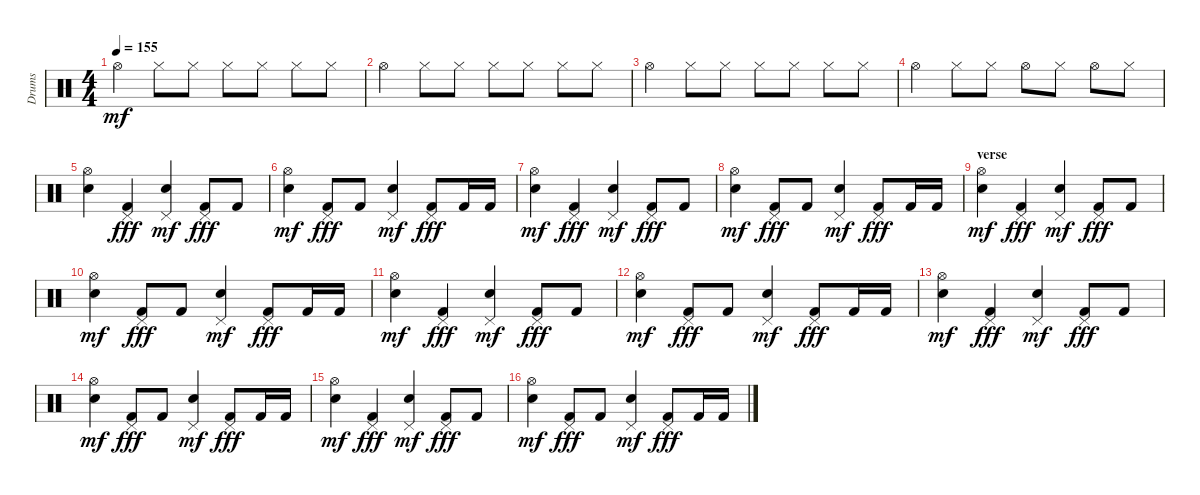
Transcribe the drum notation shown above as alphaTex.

\track ("Drums" "Drums") {instrument percussion}
\staff {score}
\articulation defaults
\ts (4 4)
\tempo 155
\clef neutral
\ks c "Hi-Hat (open)".4{dy mf} "Hi-Hat (closed)".8 "Hi-Hat (closed)".8 "Hi-Hat (closed)".8 "Hi-Hat (closed)".8 "Hi-Hat (closed)".8 "Hi-Hat (closed)".8
|
"Hi-Hat (open)".4 "Hi-Hat (closed)".8 "Hi-Hat (closed)".8 "Hi-Hat (closed)".8 "Hi-Hat (closed)".8 "Hi-Hat (closed)".8 "Hi-Hat (closed)".8 |
"Hi-Hat (open)".4 "Hi-Hat (closed)".8 "Hi-Hat (closed)".8 "Hi-Hat (closed)".8 "Hi-Hat (closed)".8 "Hi-Hat (closed)".8 "Hi-Hat (closed)".8 |
"Hi-Hat (open)".4 "Hi-Hat (closed)".8 "Hi-Hat (closed)".8 "Hi-Hat (open)".8 "Hi-Hat (closed)".8 "Hi-Hat (open)".8 "Hi-Hat (closed)".8 |
("Hi-Hat (open)" "Electric Snare (hit)").4 ("Pedal Hi-Hat (hit)" "Kick (hit) 2").4{dy fff} ("Pedal Hi-Hat (hit)" "Electric Snare (hit)").4{dy mf} ("Pedal Hi-Hat (hit)" "Kick (hit) 2").8{dy fff} "Kick (hit) 2".8 |
("Hi-Hat (open)" "Electric Snare (hit)").4{dy mf} ("Pedal Hi-Hat (hit)" "Kick (hit) 2").8{dy fff} "Kick (hit) 2".8 ("Pedal Hi-Hat (hit)" "Electric Snare (hit)").4{dy mf} ("Pedal Hi-Hat (hit)" "Kick (hit) 2").8{dy fff} "Kick (hit) 2".16 "Kick (hit) 2".16 |
("Hi-Hat (open)" "Electric Snare (hit)").4{dy mf} ("Pedal Hi-Hat (hit)" "Kick (hit) 2").4{dy fff} ("Pedal Hi-Hat (hit)" "Electric Snare (hit)").4{dy mf} ("Pedal Hi-Hat (hit)" "Kick (hit) 2").8{dy fff} "Kick (hit) 2".8 |
("Hi-Hat (open)" "Electric Snare (hit)").4{dy mf} ("Pedal Hi-Hat (hit)" "Kick (hit) 2").8{dy fff} "Kick (hit) 2".8 ("Pedal Hi-Hat (hit)" "Electric Snare (hit)").4{dy mf} ("Pedal Hi-Hat (hit)" "Kick (hit) 2").8{dy fff} "Kick (hit) 2".16 "Kick (hit) 2".16 |
\section ("" "verse")
("Hi-Hat (open)" "Electric Snare (hit)").4{dy mf} ("Pedal Hi-Hat (hit)" "Kick (hit) 2").4{dy fff} ("Pedal Hi-Hat (hit)" "Electric Snare (hit)").4{dy mf} ("Pedal Hi-Hat (hit)" "Kick (hit) 2").8{dy fff} "Kick (hit) 2".8 |
("Hi-Hat (open)" "Electric Snare (hit)").4{dy mf} ("Pedal Hi-Hat (hit)" "Kick (hit) 2").8{dy fff} "Kick (hit) 2".8 ("Pedal Hi-Hat (hit)" "Electric Snare (hit)").4{dy mf} ("Pedal Hi-Hat (hit)" "Kick (hit) 2").8{dy fff} "Kick (hit) 2".16 "Kick (hit) 2".16 |
("Hi-Hat (open)" "Electric Snare (hit)").4{dy mf} ("Pedal Hi-Hat (hit)" "Kick (hit) 2").4{dy fff} ("Pedal Hi-Hat (hit)" "Electric Snare (hit)").4{dy mf} ("Pedal Hi-Hat (hit)" "Kick (hit) 2").8{dy fff} "Kick (hit) 2".8 |
("Hi-Hat (open)" "Electric Snare (hit)").4{dy mf} ("Pedal Hi-Hat (hit)" "Kick (hit) 2").8{dy fff} "Kick (hit) 2".8 ("Pedal Hi-Hat (hit)" "Electric Snare (hit)").4{dy mf} ("Pedal Hi-Hat (hit)" "Kick (hit) 2").8{dy fff} "Kick (hit) 2".16 "Kick (hit) 2".16 |
("Hi-Hat (open)" "Electric Snare (hit)").4{dy mf} ("Pedal Hi-Hat (hit)" "Kick (hit) 2").4{dy fff} ("Pedal Hi-Hat (hit)" "Electric Snare (hit)").4{dy mf} ("Pedal Hi-Hat (hit)" "Kick (hit) 2").8{dy fff} "Kick (hit) 2".8 |
("Hi-Hat (open)" "Electric Snare (hit)").4{dy mf} ("Pedal Hi-Hat (hit)" "Kick (hit) 2").8{dy fff} "Kick (hit) 2".8 ("Pedal Hi-Hat (hit)" "Electric Snare (hit)").4{dy mf} ("Pedal Hi-Hat (hit)" "Kick (hit) 2").8{dy fff} "Kick (hit) 2".16 "Kick (hit) 2".16 |
("Hi-Hat (open)" "Electric Snare (hit)").4{dy mf} ("Pedal Hi-Hat (hit)" "Kick (hit) 2").4{dy fff} ("Pedal Hi-Hat (hit)" "Electric Snare (hit)").4{dy mf} ("Pedal Hi-Hat (hit)" "Kick (hit) 2").8{dy fff} "Kick (hit) 2".8 |
("Hi-Hat (open)" "Electric Snare (hit)").4{dy mf} ("Pedal Hi-Hat (hit)" "Kick (hit) 2").8{dy fff} "Kick (hit) 2".8 ("Pedal Hi-Hat (hit)" "Electric Snare (hit)").4{dy mf} ("Pedal Hi-Hat (hit)" "Kick (hit) 2").8{dy fff} "Kick (hit) 2".16 "Kick (hit) 2".16
